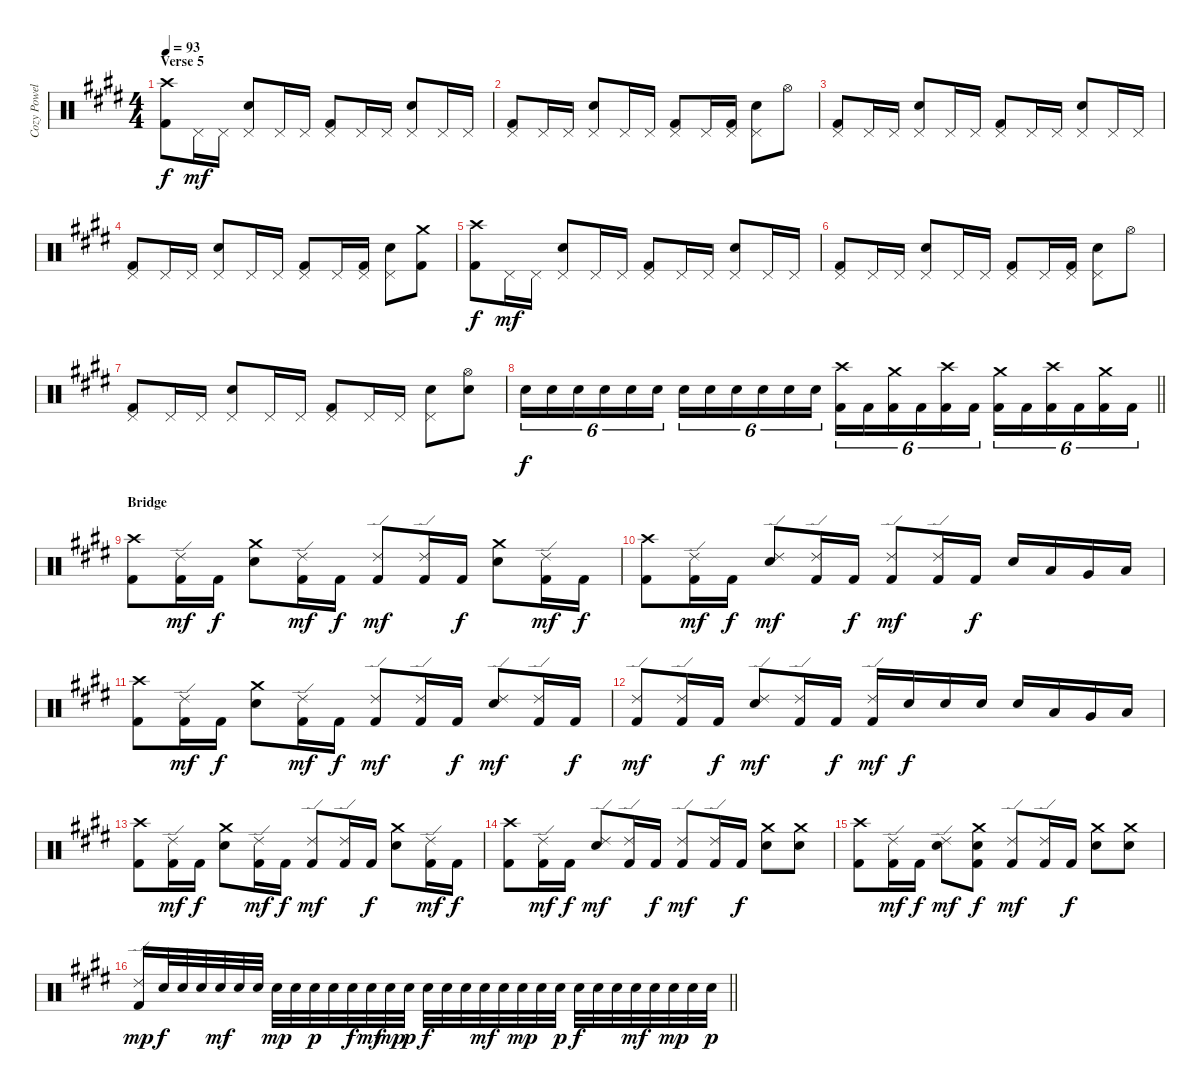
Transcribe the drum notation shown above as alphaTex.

\track ("Cozy Powell" "Cozy Powel") {instrument percussion}
\staff {score}
\articulation defaults
\ts (4 4)
\section ("" "Verse 5")
\tempo 93
\clef neutral
\ks c#minor
("Kick (hit) 2" "Crash high (hit)").8{dy f} "Pedal Hi-Hat (hit)".16{dy mf} "Pedal Hi-Hat (hit)".16 ("Pedal Hi-Hat (hit)" "Snare (hit) 2").8 "Pedal Hi-Hat (hit)".16 "Pedal Hi-Hat (hit)".16 ("Kick (hit) 2" "Pedal Hi-Hat (hit)").8 "Pedal Hi-Hat (hit)".16 "Pedal Hi-Hat (hit)".16 ("Pedal Hi-Hat (hit)" "Snare (hit) 2").8 "Pedal Hi-Hat (hit)".16 "Pedal Hi-Hat (hit)".16 |
("Kick (hit) 2" "Pedal Hi-Hat (hit)").8 "Pedal Hi-Hat (hit)".16 "Pedal Hi-Hat (hit)".16 ("Pedal Hi-Hat (hit)" "Snare (hit) 2").8 "Pedal Hi-Hat (hit)".16 "Pedal Hi-Hat (hit)".16 ("Kick (hit) 2" "Pedal Hi-Hat (hit)").8 "Pedal Hi-Hat (hit)".16 ("Kick (hit) 2" "Pedal Hi-Hat (hit)").16 ("Pedal Hi-Hat (hit)" "Snare (hit) 2").8 "Hi-Hat (open)".8 |
("Kick (hit) 2" "Pedal Hi-Hat (hit)").8 "Pedal Hi-Hat (hit)".16 "Pedal Hi-Hat (hit)".16 ("Pedal Hi-Hat (hit)" "Snare (hit) 2").8 "Pedal Hi-Hat (hit)".16 "Pedal Hi-Hat (hit)".16 ("Kick (hit) 2" "Pedal Hi-Hat (hit)").8 "Pedal Hi-Hat (hit)".16 "Pedal Hi-Hat (hit)".16 ("Pedal Hi-Hat (hit)" "Snare (hit) 2").8 "Pedal Hi-Hat (hit)".16 "Pedal Hi-Hat (hit)".16 |
("Kick (hit) 2" "Pedal Hi-Hat (hit)").8 "Pedal Hi-Hat (hit)".16 "Pedal Hi-Hat (hit)".16 ("Pedal Hi-Hat (hit)" "Snare (hit) 2").8 "Pedal Hi-Hat (hit)".16 "Pedal Hi-Hat (hit)".16 ("Kick (hit) 2" "Pedal Hi-Hat (hit)").8 "Pedal Hi-Hat (hit)".16 ("Kick (hit) 2" "Pedal Hi-Hat (hit)").16 ("Pedal Hi-Hat (hit)" "Snare (hit) 2").8 ("Kick (hit) 2" "Crash medium (hit)").8 |
("Kick (hit) 2" "Crash high (hit)").8{dy f} "Pedal Hi-Hat (hit)".16{dy mf} "Pedal Hi-Hat (hit)".16 ("Pedal Hi-Hat (hit)" "Snare (hit) 2").8 "Pedal Hi-Hat (hit)".16 "Pedal Hi-Hat (hit)".16 ("Kick (hit) 2" "Pedal Hi-Hat (hit)").8 "Pedal Hi-Hat (hit)".16 "Pedal Hi-Hat (hit)".16 ("Pedal Hi-Hat (hit)" "Snare (hit) 2").8 "Pedal Hi-Hat (hit)".16 "Pedal Hi-Hat (hit)".16 |
("Kick (hit) 2" "Pedal Hi-Hat (hit)").8 "Pedal Hi-Hat (hit)".16 "Pedal Hi-Hat (hit)".16 ("Pedal Hi-Hat (hit)" "Snare (hit) 2").8 "Pedal Hi-Hat (hit)".16 "Pedal Hi-Hat (hit)".16 ("Kick (hit) 2" "Pedal Hi-Hat (hit)").8 "Pedal Hi-Hat (hit)".16 ("Kick (hit) 2" "Pedal Hi-Hat (hit)").16 ("Pedal Hi-Hat (hit)" "Snare (hit) 2").8 "Hi-Hat (open)".8 |
("Kick (hit) 2" "Pedal Hi-Hat (hit)").8 "Pedal Hi-Hat (hit)".16 "Pedal Hi-Hat (hit)".16 ("Pedal Hi-Hat (hit)" "Snare (hit) 2").8 "Pedal Hi-Hat (hit)".16 "Pedal Hi-Hat (hit)".16 ("Kick (hit) 2" "Pedal Hi-Hat (hit)").8 "Pedal Hi-Hat (hit)".16 "Pedal Hi-Hat (hit)".16 ("Pedal Hi-Hat (hit)" "Snare (hit) 2").8 ("Hi-Hat (open)" "Snare (hit) 2").8 |
\barLineRight lightlight "Snare (hit) 2".16{tu (6 4) dy f} "Snare (hit) 2".16{tu (6 4)} "Snare (hit) 2".16{tu (6 4)} "Snare (hit) 2".16{tu (6 4)} "Snare (hit) 2".16{tu (6 4)} "Snare (hit) 2".16{tu (6 4)} "Snare (hit) 2".16{tu (6 4)} "Snare (hit) 2".16{tu (6 4)} "Snare (hit) 2".16{tu (6 4)} "Snare (hit) 2".16{tu (6 4)} "Snare (hit) 2".16{tu (6 4)} "Snare (hit) 2".16{tu (6 4)}
("Kick (hit) 2" "Crash high (hit)").16{tu (6 4)} "Kick (hit) 2".16{tu (6 4)} ("Kick (hit) 2" "Crash medium (hit)").16{tu (6 4)} "Kick (hit) 2".16{tu (6 4)} ("Kick (hit) 2" "Crash high (hit)").16{tu (6 4)} "Kick (hit) 2".16{tu (6 4)} ("Kick (hit) 2" "Crash medium (hit)").16{tu (6 4)} "Kick (hit) 2".16{tu (6 4)} ("Kick (hit) 2" "Crash high (hit)").16{tu (6 4)} "Kick (hit) 2".16{tu (6 4)} ("Kick (hit) 2" "Crash medium (hit)").16{tu (6 4)} "Kick (hit) 2".16{tu (6 4)} |
\section ("" "Bridge")
("Kick (hit) 2" "Crash high (hit)").8 ("Kick (hit) 2" "Ride (edge) 2").16{dy mf} "Kick (hit) 2".16{dy f} ("Crash medium (hit)" "Snare (hit) 2").8 ("Kick (hit) 2" "Ride (edge) 2").16{dy mf} "Kick (hit) 2".16{dy f} ("Kick (hit) 2" "Ride (edge) 2").8{dy mf} ("Kick (hit) 2" "Ride (edge) 2").16 "Kick (hit) 2".16{dy f} ("Crash medium (hit)" "Snare (hit) 2").8 ("Kick (hit) 2" "Ride (edge) 2").16{dy mf} "Kick (hit) 2".16{dy f} |
("Kick (hit) 2" "Crash high (hit)").8 ("Kick (hit) 2" "Ride (edge) 2").16{dy mf} "Kick (hit) 2".16{dy f} ("Ride (edge) 2" "Snare (hit) 2").8{dy mf} ("Kick (hit) 2" "Ride (edge) 2").16 "Kick (hit) 2".16{dy f} ("Kick (hit) 2" "Ride (edge) 2").8{dy mf} ("Kick (hit) 2" "Ride (edge) 2").16 "Kick (hit) 2".16{dy f} "Snare (hit) 2".16 "Low Tom (hit)".16 "Very Low Tom (hit)".16 "Low Floor Tom (hit)".16 |
("Kick (hit) 2" "Crash high (hit)").8 ("Kick (hit) 2" "Ride (edge) 2").16{dy mf} "Kick (hit) 2".16{dy f} ("Crash medium (hit)" "Snare (hit) 2").8 ("Kick (hit) 2" "Ride (edge) 2").16{dy mf} "Kick (hit) 2".16{dy f} ("Kick (hit) 2" "Ride (edge) 2").8{dy mf} ("Kick (hit) 2" "Ride (edge) 2").16 "Kick (hit) 2".16{dy f} ("Ride (edge) 2" "Snare (hit) 2").8{dy mf} ("Kick (hit) 2" "Ride (edge) 2").16 "Kick (hit) 2".16{dy f} |
("Kick (hit) 2" "Ride (edge) 2").8{dy mf} ("Kick (hit) 2" "Ride (edge) 2").16 "Kick (hit) 2".16{dy f} ("Ride (edge) 2" "Snare (hit) 2").8{dy mf} ("Kick (hit) 2" "Ride (edge) 2").16 "Kick (hit) 2".16{dy f} ("Kick (hit) 2" "Ride (edge) 2").16{dy mf} "Snare (hit) 2".16{dy f} "Snare (hit) 2".16 "Snare (hit) 2".16 "Snare (hit) 2".16 "Low Tom (hit)".16 "Very Low Tom (hit)".16 "Low Floor Tom (hit)".16 |
("Kick (hit) 2" "Crash high (hit)").8 ("Kick (hit) 2" "Ride (edge) 2").16{dy mf} "Kick (hit) 2".16{dy f} ("Crash medium (hit)" "Snare (hit) 2").8 ("Kick (hit) 2" "Ride (edge) 2").16{dy mf} "Kick (hit) 2".16{dy f} ("Kick (hit) 2" "Ride (edge) 2").8{dy mf} ("Kick (hit) 2" "Ride (edge) 2").16 "Kick (hit) 2".16{dy f} ("Crash medium (hit)" "Snare (hit) 2").8 ("Kick (hit) 2" "Ride (edge) 2").16{dy mf} "Kick (hit) 2".16{dy f} |
("Kick (hit) 2" "Crash high (hit)").8 ("Kick (hit) 2" "Ride (edge) 2").16{dy mf} "Kick (hit) 2".16{dy f} ("Ride (edge) 2" "Snare (hit) 2").8{dy mf} ("Kick (hit) 2" "Ride (edge) 2").16 "Kick (hit) 2".16{dy f} ("Kick (hit) 2" "Ride (edge) 2").8{dy mf} ("Kick (hit) 2" "Ride (edge) 2").16 "Kick (hit) 2".16{dy f} ("Crash medium (hit)" "Snare (hit) 2").8 ("Crash medium (hit)" "Snare (hit) 2").8 |
("Kick (hit) 2" "Crash high (hit)").8 ("Kick (hit) 2" "Ride (edge) 2").16{dy mf} "Kick (hit) 2".16{dy f} ("Ride (edge) 2" "Snare (hit) 2").8{dy mf} ("Kick (hit) 2" "Crash medium (hit)" "Snare (hit) 2").8{dy f} ("Kick (hit) 2" "Ride (edge) 2").8{dy mf} ("Kick (hit) 2" "Ride (edge) 2").16 "Kick (hit) 2".16{dy f} ("Crash medium (hit)" "Snare (hit) 2").8 ("Crash medium (hit)" "Snare (hit) 2").8 |
\barLineRight lightlight
("Kick (hit) 2" "Ride (edge) 2").16{dy mp} "Snare (hit) 2".32{dy f} "Snare (hit) 2".32 "Snare (hit) 2".32 "Snare (hit) 2".32{dy mf} "Snare (hit) 2".32 "Snare (hit) 2".32 "Snare (hit) 2".32{dy mp} "Snare (hit) 2".32 "Snare (hit) 2".32{dy p} "Snare (hit) 2".32 "Snare (hit) 2".32{dy f} "Snare (hit) 2".32{dy mf} "Snare (hit) 2".32{dy mp} "Snare (hit) 2".32{dy p} "Snare (hit) 2".32{dy f} "Snare (hit) 2".32 "Snare (hit) 2".32 "Snare (hit) 2".32{dy mf} "Snare (hit) 2".32 "Snare (hit) 2".32{dy mp} "Snare (hit) 2".32 "Snare (hit) 2".32{dy p} "Snare (hit) 2".32{dy f} "Snare (hit) 2".32 "Snare (hit) 2".32 "Snare (hit) 2".32{dy mf} "Snare (hit) 2".32 "Snare (hit) 2".32{dy mp} "Snare (hit) 2".32 "Snare (hit) 2".32{dy p}
